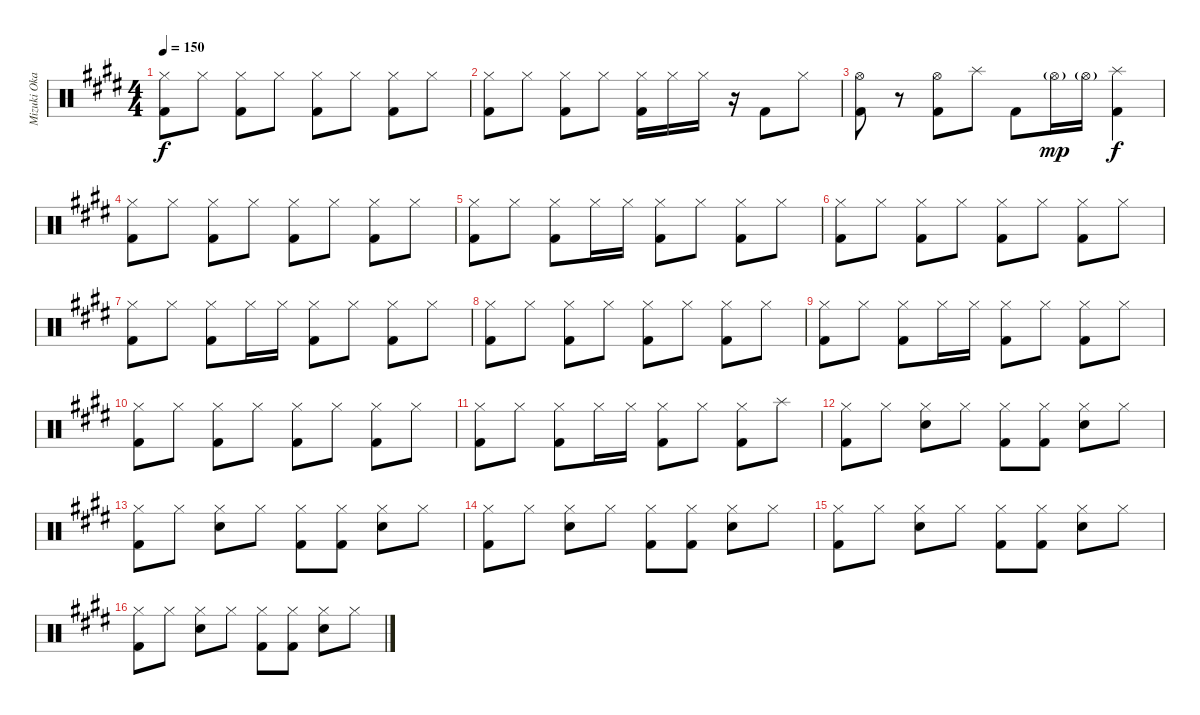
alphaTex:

\track ("Mizuki Okajima (Drums)" "Mizuki Oka") {instrument percussion}
\staff {score}
\articulation defaults
\ts (4 4)
\tempo 150
\clef neutral
\ks c#minor
("Hi-Hat (closed)" "Kick (hit) 2").8{dy f} "Hi-Hat (closed)".8 ("Hi-Hat (closed)" "Kick (hit) 2").8 "Hi-Hat (closed)".8 ("Hi-Hat (closed)" "Kick (hit) 2").8 "Hi-Hat (closed)".8 ("Hi-Hat (closed)" "Kick (hit) 2").8 "Hi-Hat (closed)".8 |
("Hi-Hat (closed)" "Kick (hit) 2").8 "Hi-Hat (closed)".8 ("Hi-Hat (closed)" "Kick (hit) 2").8 "Hi-Hat (closed)".8 ("Hi-Hat (closed)" "Kick (hit) 2").16 "Hi-Hat (closed)".16 "Hi-Hat (closed)".16 r.16 "Kick (hit) 2".8 "Hi-Hat (closed)".8 |
("Hi-Hat (open)" "Kick (hit) 2").8 r.8 ("Hi-Hat (open)" "Kick (hit) 2").8 "Splash (hit)".8 "Kick (hit) 2".8 "Hi-Hat (open)"{g}.16{dy mp} "Hi-Hat (open)"{g}.16 ("Splash (hit)" "Kick (hit) 2").4{dy f} |
("Hi-Hat (closed)" "Kick (hit) 2").8 "Hi-Hat (closed)".8 ("Hi-Hat (closed)" "Kick (hit) 2").8 "Hi-Hat (closed)".8 ("Hi-Hat (closed)" "Kick (hit) 2").8 "Hi-Hat (closed)".8 ("Hi-Hat (closed)" "Kick (hit) 2").8 "Hi-Hat (closed)".8 |
("Hi-Hat (closed)" "Kick (hit) 2").8 "Hi-Hat (closed)".8 ("Hi-Hat (closed)" "Kick (hit) 2").8 "Hi-Hat (closed)".16 "Hi-Hat (closed)".16 ("Hi-Hat (closed)" "Kick (hit) 2").8 "Hi-Hat (closed)".8 ("Hi-Hat (closed)" "Kick (hit) 2").8 "Hi-Hat (closed)".8 |
("Hi-Hat (closed)" "Kick (hit) 2").8 "Hi-Hat (closed)".8 ("Hi-Hat (closed)" "Kick (hit) 2").8 "Hi-Hat (closed)".8 ("Hi-Hat (closed)" "Kick (hit) 2").8 "Hi-Hat (closed)".8 ("Hi-Hat (closed)" "Kick (hit) 2").8 "Hi-Hat (closed)".8 |
("Hi-Hat (closed)" "Kick (hit) 2").8 "Hi-Hat (closed)".8 ("Hi-Hat (closed)" "Kick (hit) 2").8 "Hi-Hat (closed)".16 "Hi-Hat (closed)".16 ("Hi-Hat (closed)" "Kick (hit) 2").8 "Hi-Hat (closed)".8 ("Hi-Hat (closed)" "Kick (hit) 2").8 "Hi-Hat (closed)".8 |
("Hi-Hat (closed)" "Kick (hit) 2").8 "Hi-Hat (closed)".8 ("Hi-Hat (closed)" "Kick (hit) 2").8 "Hi-Hat (closed)".8 ("Hi-Hat (closed)" "Kick (hit) 2").8 "Hi-Hat (closed)".8 ("Hi-Hat (closed)" "Kick (hit) 2").8 "Hi-Hat (closed)".8 |
("Hi-Hat (closed)" "Kick (hit) 2").8 "Hi-Hat (closed)".8 ("Hi-Hat (closed)" "Kick (hit) 2").8 "Hi-Hat (closed)".16 "Hi-Hat (closed)".16 ("Hi-Hat (closed)" "Kick (hit) 2").8 "Hi-Hat (closed)".8 ("Hi-Hat (closed)" "Kick (hit) 2").8 "Hi-Hat (closed)".8 |
("Hi-Hat (closed)" "Kick (hit) 2").8 "Hi-Hat (closed)".8 ("Hi-Hat (closed)" "Kick (hit) 2").8 "Hi-Hat (closed)".8 ("Hi-Hat (closed)" "Kick (hit) 2").8 "Hi-Hat (closed)".8 ("Hi-Hat (closed)" "Kick (hit) 2").8 "Hi-Hat (closed)".8 |
("Hi-Hat (closed)" "Kick (hit) 2").8 "Hi-Hat (closed)".8 ("Hi-Hat (closed)" "Kick (hit) 2").8 "Hi-Hat (closed)".16 "Hi-Hat (closed)".16 ("Hi-Hat (closed)" "Kick (hit) 2").8 "Hi-Hat (closed)".8 ("Hi-Hat (closed)" "Kick (hit) 2").8 "Splash (hit)".8 |
("Hi-Hat (closed)" "Kick (hit) 2").8 "Hi-Hat (closed)".8 ("Hi-Hat (closed)" "Snare (hit) 2").8 "Hi-Hat (closed)".8 ("Hi-Hat (closed)" "Kick (hit) 2").8 ("Hi-Hat (closed)" "Kick (hit) 2").8 ("Hi-Hat (closed)" "Snare (hit) 2").8 "Hi-Hat (closed)".8 |
("Hi-Hat (closed)" "Kick (hit) 2").8 "Hi-Hat (closed)".8 ("Hi-Hat (closed)" "Snare (hit) 2").8 "Hi-Hat (closed)".8 ("Hi-Hat (closed)" "Kick (hit) 2").8 ("Hi-Hat (closed)" "Kick (hit) 2").8 ("Hi-Hat (closed)" "Snare (hit) 2").8 "Hi-Hat (closed)".8 |
("Hi-Hat (closed)" "Kick (hit) 2").8 "Hi-Hat (closed)".8 ("Hi-Hat (closed)" "Snare (hit) 2").8 "Hi-Hat (closed)".8 ("Hi-Hat (closed)" "Kick (hit) 2").8 ("Hi-Hat (closed)" "Kick (hit) 2").8 ("Hi-Hat (closed)" "Snare (hit) 2").8 "Hi-Hat (closed)".8 |
("Hi-Hat (closed)" "Kick (hit) 2").8 "Hi-Hat (closed)".8 ("Hi-Hat (closed)" "Snare (hit) 2").8 "Hi-Hat (closed)".8 ("Hi-Hat (closed)" "Kick (hit) 2").8 ("Hi-Hat (closed)" "Kick (hit) 2").8 ("Hi-Hat (closed)" "Snare (hit) 2").8 "Hi-Hat (closed)".8 |
("Hi-Hat (closed)" "Kick (hit) 2").8 "Hi-Hat (closed)".8 ("Hi-Hat (closed)" "Snare (hit) 2").8 "Hi-Hat (closed)".8 ("Hi-Hat (closed)" "Kick (hit) 2").8 ("Hi-Hat (closed)" "Kick (hit) 2").8 ("Hi-Hat (closed)" "Snare (hit) 2").8 "Hi-Hat (closed)".8
